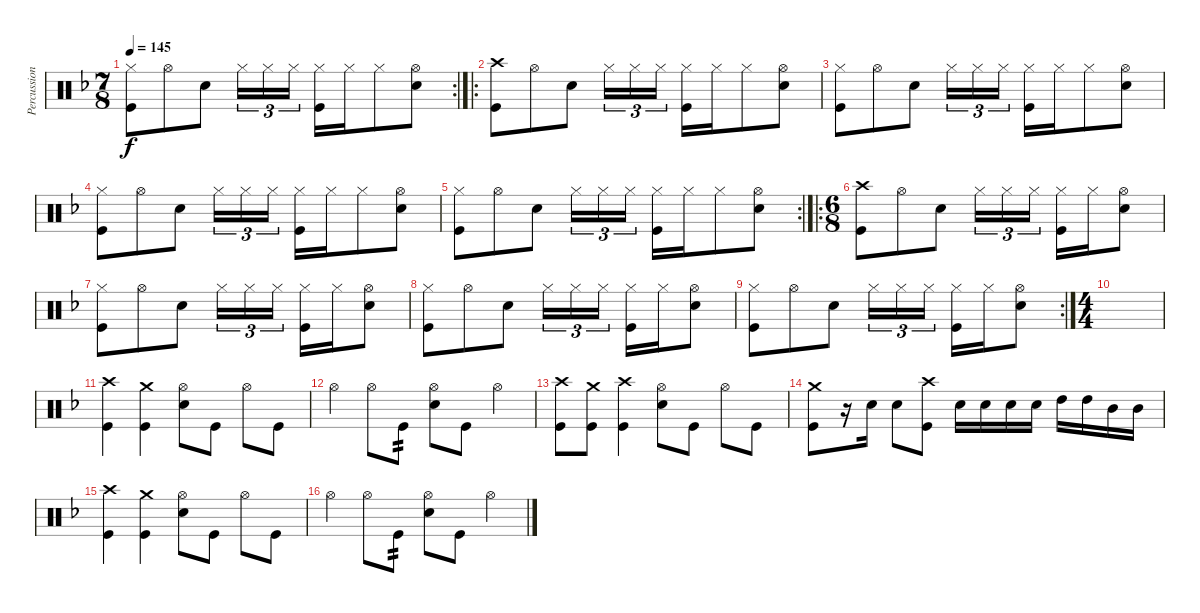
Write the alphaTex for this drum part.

\track ("Percussion" "Percussion") {instrument percussion}
\staff {score}
\articulation defaults
\rc 2
\ts (7 8)
\tempo 145
\clef neutral
\ks f
("Hi-Hat (closed)" "Kick (hit)").8{dy f} "Hi-Hat (open)".8 "Electric Snare (hit)".8 "Hi-Hat (closed)".16{tu (3 2)} "Hi-Hat (closed)".16{tu (3 2)} "Hi-Hat (closed)".16{tu (3 2)} ("Hi-Hat (closed)" "Kick (hit)").16 "Hi-Hat (closed)".16 "Hi-Hat (closed)".8 ("Hi-Hat (open)" "Electric Snare (hit)").8 |
\ro
("Crash high (hit)" "Kick (hit)").8 "Hi-Hat (open)".8 "Electric Snare (hit)".8 "Hi-Hat (closed)".16{tu (3 2)} "Hi-Hat (closed)".16{tu (3 2)} "Hi-Hat (closed)".16{tu (3 2)} ("Hi-Hat (closed)" "Kick (hit)").16 "Hi-Hat (closed)".16 "Hi-Hat (closed)".8 ("Hi-Hat (open)" "Electric Snare (hit)").8 |
("Hi-Hat (closed)" "Kick (hit)").8 "Hi-Hat (open)".8 "Electric Snare (hit)".8 "Hi-Hat (closed)".16{tu (3 2)} "Hi-Hat (closed)".16{tu (3 2)} "Hi-Hat (closed)".16{tu (3 2)} ("Hi-Hat (closed)" "Kick (hit)").16 "Hi-Hat (closed)".16 "Hi-Hat (closed)".8 ("Hi-Hat (open)" "Electric Snare (hit)").8 |
("Hi-Hat (closed)" "Kick (hit)").8 "Hi-Hat (open)".8 "Electric Snare (hit)".8 "Hi-Hat (closed)".16{tu (3 2)} "Hi-Hat (closed)".16{tu (3 2)} "Hi-Hat (closed)".16{tu (3 2)} ("Hi-Hat (closed)" "Kick (hit)").16 "Hi-Hat (closed)".16 "Hi-Hat (closed)".8 ("Hi-Hat (open)" "Electric Snare (hit)").8 |
\rc 2
("Hi-Hat (closed)" "Kick (hit)").8 "Hi-Hat (open)".8 "Electric Snare (hit)".8 "Hi-Hat (closed)".16{tu (3 2)} "Hi-Hat (closed)".16{tu (3 2)} "Hi-Hat (closed)".16{tu (3 2)} ("Hi-Hat (closed)" "Kick (hit)").16 "Hi-Hat (closed)".16 "Hi-Hat (closed)".8 ("Hi-Hat (open)" "Electric Snare (hit)").8 |
\ro
\ts (6 8)
("Crash high (hit)" "Kick (hit)").8 "Hi-Hat (open)".8 "Electric Snare (hit)".8 "Hi-Hat (closed)".16{tu (3 2)} "Hi-Hat (closed)".16{tu (3 2)} "Hi-Hat (closed)".16{tu (3 2) beam splitsecondary} ("Hi-Hat (closed)" "Kick (hit)").16 "Hi-Hat (closed)".16 ("Hi-Hat (open)" "Electric Snare (hit)").8 |
("Hi-Hat (closed)" "Kick (hit)").8 "Hi-Hat (open)".8 "Electric Snare (hit)".8 "Hi-Hat (closed)".16{tu (3 2)} "Hi-Hat (closed)".16{tu (3 2)} "Hi-Hat (closed)".16{tu (3 2) beam splitsecondary} ("Hi-Hat (closed)" "Kick (hit)").16 "Hi-Hat (closed)".16 ("Hi-Hat (open)" "Electric Snare (hit)").8 |
("Hi-Hat (closed)" "Kick (hit)").8 "Hi-Hat (open)".8 "Electric Snare (hit)".8 "Hi-Hat (closed)".16{tu (3 2)} "Hi-Hat (closed)".16{tu (3 2)} "Hi-Hat (closed)".16{tu (3 2) beam splitsecondary} ("Hi-Hat (closed)" "Kick (hit)").16 "Hi-Hat (closed)".16 ("Hi-Hat (open)" "Electric Snare (hit)").8 |
\rc 2
("Hi-Hat (closed)" "Kick (hit)").8 "Hi-Hat (open)".8 "Electric Snare (hit)".8 "Hi-Hat (closed)".16{tu (3 2)} "Hi-Hat (closed)".16{tu (3 2)} "Hi-Hat (closed)".16{tu (3 2) beam splitsecondary} ("Hi-Hat (closed)" "Kick (hit)").16 "Hi-Hat (closed)".16 ("Hi-Hat (open)" "Electric Snare (hit)").8 |
\ts (4 4)
|
("Crash high (hit)" "Kick (hit)").4 ("Crash medium (hit)" "Kick (hit)").4 ("Hi-Hat (open)" "Electric Snare (hit)").8 "Kick (hit)".8 "Hi-Hat (open)".8 "Kick (hit)".8 |
"Hi-Hat (open)".4 "Hi-Hat (open)".8 "Kick (hit)".8{tp 2} ("Hi-Hat (open)" "Electric Snare (hit)").8 "Kick (hit)".8 "Hi-Hat (open)".4 |
("Crash high (hit)" "Kick (hit)").8 ("Crash medium (hit)" "Kick (hit)").8 ("Crash high (hit)" "Kick (hit)").4 ("Hi-Hat (open)" "Electric Snare (hit)").8 "Kick (hit)".8 "Hi-Hat (open)".8 "Kick (hit)".8 |
("Crash medium (hit)" "Kick (hit)").8 r.16 "Electric Snare (hit)".16 "Electric Snare (hit)".8 ("Crash high (hit)" "Kick (hit)").8 "Electric Snare (hit)".16 "Electric Snare (hit)".16 "Electric Snare (hit)".16 "Electric Snare (hit)".16 "High Tom (hit)".16 "High Tom (hit)".16 "Mid Tom (hit)".16 "Mid Tom (hit)".16 |
("Crash high (hit)" "Kick (hit)").4 ("Crash medium (hit)" "Kick (hit)").4 ("Hi-Hat (open)" "Electric Snare (hit)").8 "Kick (hit)".8 "Hi-Hat (open)".8 "Kick (hit)".8 |
"Hi-Hat (open)".4 "Hi-Hat (open)".8 "Kick (hit)".8{tp 2} ("Hi-Hat (open)" "Electric Snare (hit)").8 "Kick (hit)".8 "Hi-Hat (open)".4
